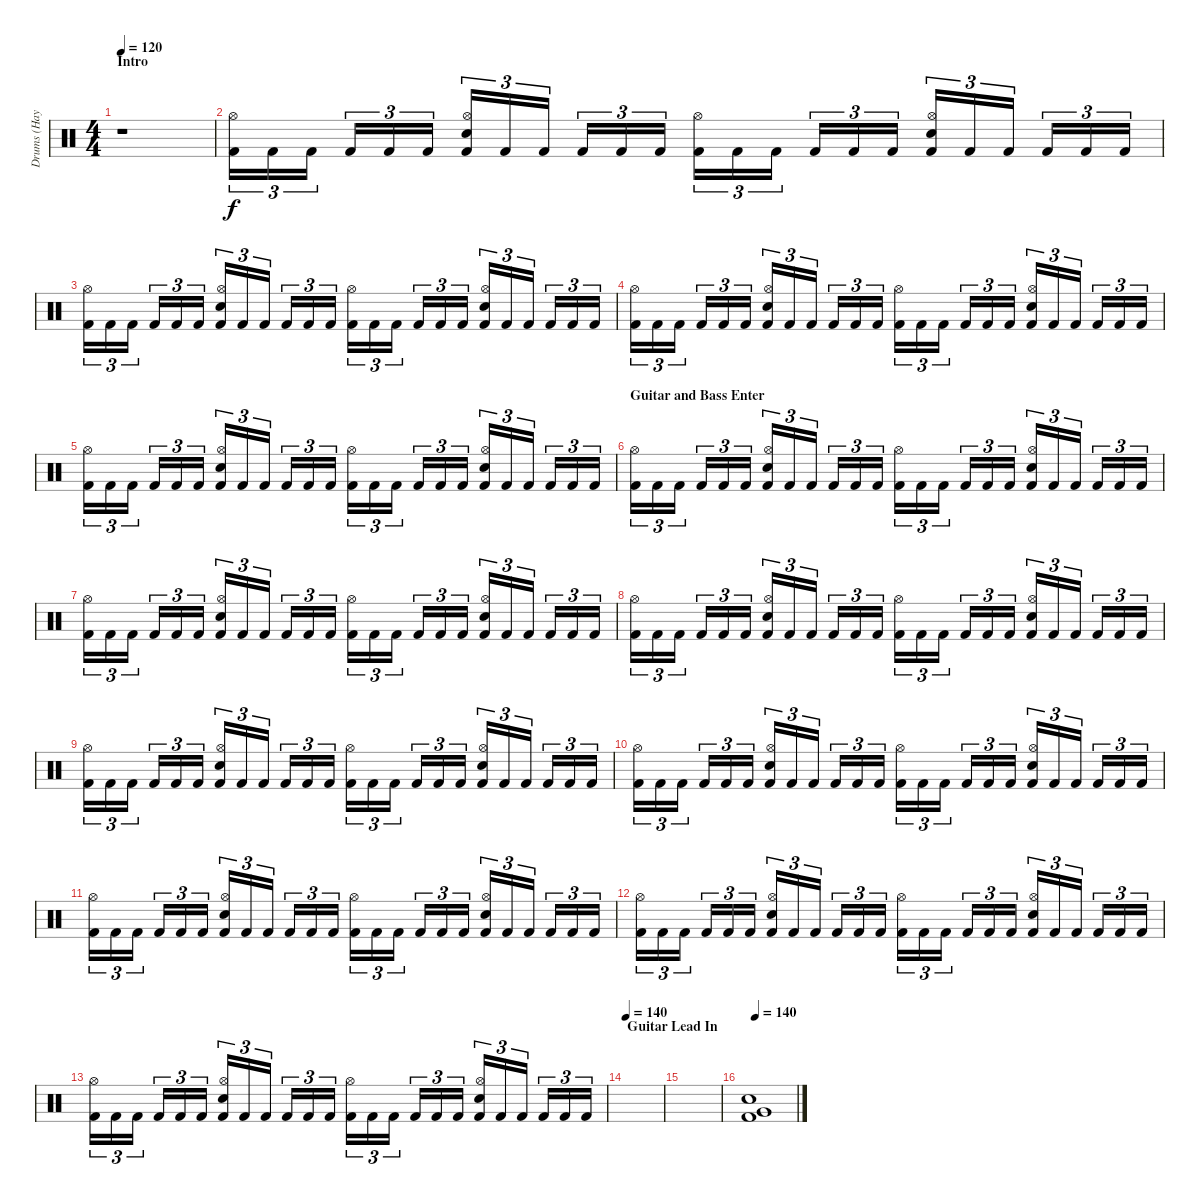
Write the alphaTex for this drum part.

\track ("Drums (Hayden)" "Drums (Hay") {instrument percussion}
\staff {score}
\articulation defaults
\ts (4 4)
\section ("" "Intro")
\tempo 120
\clef neutral
\ks c
r.1{dy f} |
("Kick (hit) 2" "Hi-Hat (open)").16{tu (3 2)} "Kick (hit) 2".16{tu (3 2)} "Kick (hit) 2".16{tu (3 2)} "Kick (hit) 2".16{tu (3 2)} "Kick (hit) 2".16{tu (3 2)} "Kick (hit) 2".16{tu (3 2)} ("Kick (hit) 2" "Hi-Hat (open)" "Electric Snare (hit)").16{tu (3 2)} "Kick (hit) 2".16{tu (3 2)} "Kick (hit) 2".16{tu (3 2)} "Kick (hit) 2".16{tu (3 2)} "Kick (hit) 2".16{tu (3 2)} "Kick (hit) 2".16{tu (3 2)} ("Kick (hit) 2" "Hi-Hat (open)").16{tu (3 2)} "Kick (hit) 2".16{tu (3 2)} "Kick (hit) 2".16{tu (3 2)} "Kick (hit) 2".16{tu (3 2)} "Kick (hit) 2".16{tu (3 2)} "Kick (hit) 2".16{tu (3 2)} ("Kick (hit) 2" "Hi-Hat (open)" "Electric Snare (hit)").16{tu (3 2)} "Kick (hit) 2".16{tu (3 2)} "Kick (hit) 2".16{tu (3 2)} "Kick (hit) 2".16{tu (3 2)} "Kick (hit) 2".16{tu (3 2)} "Kick (hit) 2".16{tu (3 2)} |
("Kick (hit) 2" "Hi-Hat (open)").16{tu (3 2)} "Kick (hit) 2".16{tu (3 2)} "Kick (hit) 2".16{tu (3 2)} "Kick (hit) 2".16{tu (3 2)} "Kick (hit) 2".16{tu (3 2)} "Kick (hit) 2".16{tu (3 2)} ("Kick (hit) 2" "Hi-Hat (open)" "Electric Snare (hit)").16{tu (3 2)} "Kick (hit) 2".16{tu (3 2)} "Kick (hit) 2".16{tu (3 2)} "Kick (hit) 2".16{tu (3 2)} "Kick (hit) 2".16{tu (3 2)} "Kick (hit) 2".16{tu (3 2)} ("Kick (hit) 2" "Hi-Hat (open)").16{tu (3 2)} "Kick (hit) 2".16{tu (3 2)} "Kick (hit) 2".16{tu (3 2)} "Kick (hit) 2".16{tu (3 2)} "Kick (hit) 2".16{tu (3 2)} "Kick (hit) 2".16{tu (3 2)} ("Kick (hit) 2" "Hi-Hat (open)" "Electric Snare (hit)").16{tu (3 2)} "Kick (hit) 2".16{tu (3 2)} "Kick (hit) 2".16{tu (3 2)} "Kick (hit) 2".16{tu (3 2)} "Kick (hit) 2".16{tu (3 2)} "Kick (hit) 2".16{tu (3 2)} |
("Kick (hit) 2" "Hi-Hat (open)").16{tu (3 2)} "Kick (hit) 2".16{tu (3 2)} "Kick (hit) 2".16{tu (3 2)} "Kick (hit) 2".16{tu (3 2)} "Kick (hit) 2".16{tu (3 2)} "Kick (hit) 2".16{tu (3 2)} ("Kick (hit) 2" "Hi-Hat (open)" "Electric Snare (hit)").16{tu (3 2)} "Kick (hit) 2".16{tu (3 2)} "Kick (hit) 2".16{tu (3 2)} "Kick (hit) 2".16{tu (3 2)} "Kick (hit) 2".16{tu (3 2)} "Kick (hit) 2".16{tu (3 2)} ("Kick (hit) 2" "Hi-Hat (open)").16{tu (3 2)} "Kick (hit) 2".16{tu (3 2)} "Kick (hit) 2".16{tu (3 2)} "Kick (hit) 2".16{tu (3 2)} "Kick (hit) 2".16{tu (3 2)} "Kick (hit) 2".16{tu (3 2)} ("Kick (hit) 2" "Hi-Hat (open)" "Electric Snare (hit)").16{tu (3 2)} "Kick (hit) 2".16{tu (3 2)} "Kick (hit) 2".16{tu (3 2)} "Kick (hit) 2".16{tu (3 2)} "Kick (hit) 2".16{tu (3 2)} "Kick (hit) 2".16{tu (3 2)} |
("Kick (hit) 2" "Hi-Hat (open)").16{tu (3 2)} "Kick (hit) 2".16{tu (3 2)} "Kick (hit) 2".16{tu (3 2)} "Kick (hit) 2".16{tu (3 2)} "Kick (hit) 2".16{tu (3 2)} "Kick (hit) 2".16{tu (3 2)} ("Kick (hit) 2" "Hi-Hat (open)" "Electric Snare (hit)").16{tu (3 2)} "Kick (hit) 2".16{tu (3 2)} "Kick (hit) 2".16{tu (3 2)} "Kick (hit) 2".16{tu (3 2)} "Kick (hit) 2".16{tu (3 2)} "Kick (hit) 2".16{tu (3 2)} ("Kick (hit) 2" "Hi-Hat (open)").16{tu (3 2)} "Kick (hit) 2".16{tu (3 2)} "Kick (hit) 2".16{tu (3 2)} "Kick (hit) 2".16{tu (3 2)} "Kick (hit) 2".16{tu (3 2)} "Kick (hit) 2".16{tu (3 2)} ("Kick (hit) 2" "Hi-Hat (open)" "Electric Snare (hit)").16{tu (3 2)} "Kick (hit) 2".16{tu (3 2)} "Kick (hit) 2".16{tu (3 2)} "Kick (hit) 2".16{tu (3 2)} "Kick (hit) 2".16{tu (3 2)} "Kick (hit) 2".16{tu (3 2)} |
\section ("" "Guitar and Bass Enter")
("Kick (hit) 2" "Hi-Hat (open)").16{tu (3 2)} "Kick (hit) 2".16{tu (3 2)} "Kick (hit) 2".16{tu (3 2)} "Kick (hit) 2".16{tu (3 2)} "Kick (hit) 2".16{tu (3 2)} "Kick (hit) 2".16{tu (3 2)} ("Kick (hit) 2" "Hi-Hat (open)" "Electric Snare (hit)").16{tu (3 2)} "Kick (hit) 2".16{tu (3 2)} "Kick (hit) 2".16{tu (3 2)} "Kick (hit) 2".16{tu (3 2)} "Kick (hit) 2".16{tu (3 2)} "Kick (hit) 2".16{tu (3 2)} ("Kick (hit) 2" "Hi-Hat (open)").16{tu (3 2)} "Kick (hit) 2".16{tu (3 2)} "Kick (hit) 2".16{tu (3 2)} "Kick (hit) 2".16{tu (3 2)} "Kick (hit) 2".16{tu (3 2)} "Kick (hit) 2".16{tu (3 2)} ("Kick (hit) 2" "Hi-Hat (open)" "Electric Snare (hit)").16{tu (3 2)} "Kick (hit) 2".16{tu (3 2)} "Kick (hit) 2".16{tu (3 2)} "Kick (hit) 2".16{tu (3 2)} "Kick (hit) 2".16{tu (3 2)} "Kick (hit) 2".16{tu (3 2)} |
("Kick (hit) 2" "Hi-Hat (open)").16{tu (3 2)} "Kick (hit) 2".16{tu (3 2)} "Kick (hit) 2".16{tu (3 2)} "Kick (hit) 2".16{tu (3 2)} "Kick (hit) 2".16{tu (3 2)} "Kick (hit) 2".16{tu (3 2)} ("Kick (hit) 2" "Hi-Hat (open)" "Electric Snare (hit)").16{tu (3 2)} "Kick (hit) 2".16{tu (3 2)} "Kick (hit) 2".16{tu (3 2)} "Kick (hit) 2".16{tu (3 2)} "Kick (hit) 2".16{tu (3 2)} "Kick (hit) 2".16{tu (3 2)} ("Kick (hit) 2" "Hi-Hat (open)").16{tu (3 2)} "Kick (hit) 2".16{tu (3 2)} "Kick (hit) 2".16{tu (3 2)} "Kick (hit) 2".16{tu (3 2)} "Kick (hit) 2".16{tu (3 2)} "Kick (hit) 2".16{tu (3 2)} ("Kick (hit) 2" "Hi-Hat (open)" "Electric Snare (hit)").16{tu (3 2)} "Kick (hit) 2".16{tu (3 2)} "Kick (hit) 2".16{tu (3 2)} "Kick (hit) 2".16{tu (3 2)} "Kick (hit) 2".16{tu (3 2)} "Kick (hit) 2".16{tu (3 2)} |
("Kick (hit) 2" "Hi-Hat (open)").16{tu (3 2)} "Kick (hit) 2".16{tu (3 2)} "Kick (hit) 2".16{tu (3 2)} "Kick (hit) 2".16{tu (3 2)} "Kick (hit) 2".16{tu (3 2)} "Kick (hit) 2".16{tu (3 2)} ("Kick (hit) 2" "Hi-Hat (open)" "Electric Snare (hit)").16{tu (3 2)} "Kick (hit) 2".16{tu (3 2)} "Kick (hit) 2".16{tu (3 2)} "Kick (hit) 2".16{tu (3 2)} "Kick (hit) 2".16{tu (3 2)} "Kick (hit) 2".16{tu (3 2)} ("Kick (hit) 2" "Hi-Hat (open)").16{tu (3 2)} "Kick (hit) 2".16{tu (3 2)} "Kick (hit) 2".16{tu (3 2)} "Kick (hit) 2".16{tu (3 2)} "Kick (hit) 2".16{tu (3 2)} "Kick (hit) 2".16{tu (3 2)} ("Kick (hit) 2" "Hi-Hat (open)" "Electric Snare (hit)").16{tu (3 2)} "Kick (hit) 2".16{tu (3 2)} "Kick (hit) 2".16{tu (3 2)} "Kick (hit) 2".16{tu (3 2)} "Kick (hit) 2".16{tu (3 2)} "Kick (hit) 2".16{tu (3 2)} |
("Kick (hit) 2" "Hi-Hat (open)").16{tu (3 2)} "Kick (hit) 2".16{tu (3 2)} "Kick (hit) 2".16{tu (3 2)} "Kick (hit) 2".16{tu (3 2)} "Kick (hit) 2".16{tu (3 2)} "Kick (hit) 2".16{tu (3 2)} ("Kick (hit) 2" "Hi-Hat (open)" "Electric Snare (hit)").16{tu (3 2)} "Kick (hit) 2".16{tu (3 2)} "Kick (hit) 2".16{tu (3 2)} "Kick (hit) 2".16{tu (3 2)} "Kick (hit) 2".16{tu (3 2)} "Kick (hit) 2".16{tu (3 2)} ("Kick (hit) 2" "Hi-Hat (open)").16{tu (3 2)} "Kick (hit) 2".16{tu (3 2)} "Kick (hit) 2".16{tu (3 2)} "Kick (hit) 2".16{tu (3 2)} "Kick (hit) 2".16{tu (3 2)} "Kick (hit) 2".16{tu (3 2)} ("Kick (hit) 2" "Hi-Hat (open)" "Electric Snare (hit)").16{tu (3 2)} "Kick (hit) 2".16{tu (3 2)} "Kick (hit) 2".16{tu (3 2)} "Kick (hit) 2".16{tu (3 2)} "Kick (hit) 2".16{tu (3 2)} "Kick (hit) 2".16{tu (3 2)} |
("Kick (hit) 2" "Hi-Hat (open)").16{tu (3 2)} "Kick (hit) 2".16{tu (3 2)} "Kick (hit) 2".16{tu (3 2)} "Kick (hit) 2".16{tu (3 2)} "Kick (hit) 2".16{tu (3 2)} "Kick (hit) 2".16{tu (3 2)} ("Kick (hit) 2" "Hi-Hat (open)" "Electric Snare (hit)").16{tu (3 2)} "Kick (hit) 2".16{tu (3 2)} "Kick (hit) 2".16{tu (3 2)} "Kick (hit) 2".16{tu (3 2)} "Kick (hit) 2".16{tu (3 2)} "Kick (hit) 2".16{tu (3 2)} ("Kick (hit) 2" "Hi-Hat (open)").16{tu (3 2)} "Kick (hit) 2".16{tu (3 2)} "Kick (hit) 2".16{tu (3 2)} "Kick (hit) 2".16{tu (3 2)} "Kick (hit) 2".16{tu (3 2)} "Kick (hit) 2".16{tu (3 2)} ("Kick (hit) 2" "Hi-Hat (open)" "Electric Snare (hit)").16{tu (3 2)} "Kick (hit) 2".16{tu (3 2)} "Kick (hit) 2".16{tu (3 2)} "Kick (hit) 2".16{tu (3 2)} "Kick (hit) 2".16{tu (3 2)} "Kick (hit) 2".16{tu (3 2)} |
("Kick (hit) 2" "Hi-Hat (open)").16{tu (3 2)} "Kick (hit) 2".16{tu (3 2)} "Kick (hit) 2".16{tu (3 2)} "Kick (hit) 2".16{tu (3 2)} "Kick (hit) 2".16{tu (3 2)} "Kick (hit) 2".16{tu (3 2)} ("Kick (hit) 2" "Hi-Hat (open)" "Electric Snare (hit)").16{tu (3 2)} "Kick (hit) 2".16{tu (3 2)} "Kick (hit) 2".16{tu (3 2)} "Kick (hit) 2".16{tu (3 2)} "Kick (hit) 2".16{tu (3 2)} "Kick (hit) 2".16{tu (3 2)} ("Kick (hit) 2" "Hi-Hat (open)").16{tu (3 2)} "Kick (hit) 2".16{tu (3 2)} "Kick (hit) 2".16{tu (3 2)} "Kick (hit) 2".16{tu (3 2)} "Kick (hit) 2".16{tu (3 2)} "Kick (hit) 2".16{tu (3 2)} ("Kick (hit) 2" "Hi-Hat (open)" "Electric Snare (hit)").16{tu (3 2)} "Kick (hit) 2".16{tu (3 2)} "Kick (hit) 2".16{tu (3 2)} "Kick (hit) 2".16{tu (3 2)} "Kick (hit) 2".16{tu (3 2)} "Kick (hit) 2".16{tu (3 2)} |
("Kick (hit) 2" "Hi-Hat (open)").16{tu (3 2)} "Kick (hit) 2".16{tu (3 2)} "Kick (hit) 2".16{tu (3 2)} "Kick (hit) 2".16{tu (3 2)} "Kick (hit) 2".16{tu (3 2)} "Kick (hit) 2".16{tu (3 2)} ("Kick (hit) 2" "Hi-Hat (open)" "Electric Snare (hit)").16{tu (3 2)} "Kick (hit) 2".16{tu (3 2)} "Kick (hit) 2".16{tu (3 2)} "Kick (hit) 2".16{tu (3 2)} "Kick (hit) 2".16{tu (3 2)} "Kick (hit) 2".16{tu (3 2)} ("Kick (hit) 2" "Hi-Hat (open)").16{tu (3 2)} "Kick (hit) 2".16{tu (3 2)} "Kick (hit) 2".16{tu (3 2)} "Kick (hit) 2".16{tu (3 2)} "Kick (hit) 2".16{tu (3 2)} "Kick (hit) 2".16{tu (3 2)} ("Kick (hit) 2" "Hi-Hat (open)" "Electric Snare (hit)").16{tu (3 2)} "Kick (hit) 2".16{tu (3 2)} "Kick (hit) 2".16{tu (3 2)} "Kick (hit) 2".16{tu (3 2)} "Kick (hit) 2".16{tu (3 2)} "Kick (hit) 2".16{tu (3 2)} |
("Kick (hit) 2" "Hi-Hat (open)").16{tu (3 2)} "Kick (hit) 2".16{tu (3 2)} "Kick (hit) 2".16{tu (3 2)} "Kick (hit) 2".16{tu (3 2)} "Kick (hit) 2".16{tu (3 2)} "Kick (hit) 2".16{tu (3 2)} ("Kick (hit) 2" "Hi-Hat (open)" "Electric Snare (hit)").16{tu (3 2)} "Kick (hit) 2".16{tu (3 2)} "Kick (hit) 2".16{tu (3 2)} "Kick (hit) 2".16{tu (3 2)} "Kick (hit) 2".16{tu (3 2)} "Kick (hit) 2".16{tu (3 2)} ("Kick (hit) 2" "Hi-Hat (open)").16{tu (3 2)} "Kick (hit) 2".16{tu (3 2)} "Kick (hit) 2".16{tu (3 2)} "Kick (hit) 2".16{tu (3 2)} "Kick (hit) 2".16{tu (3 2)} "Kick (hit) 2".16{tu (3 2)} ("Kick (hit) 2" "Hi-Hat (open)" "Electric Snare (hit)").16{tu (3 2)} "Kick (hit) 2".16{tu (3 2)} "Kick (hit) 2".16{tu (3 2)} "Kick (hit) 2".16{tu (3 2)} "Kick (hit) 2".16{tu (3 2)} "Kick (hit) 2".16{tu (3 2)} |
\section ("" "Guitar Lead In")
\tempo 140
|
|
\tempo 140
("Electric Snare (hit)" "Very Low Tom (hit)" "Kick (hit) 2").1
